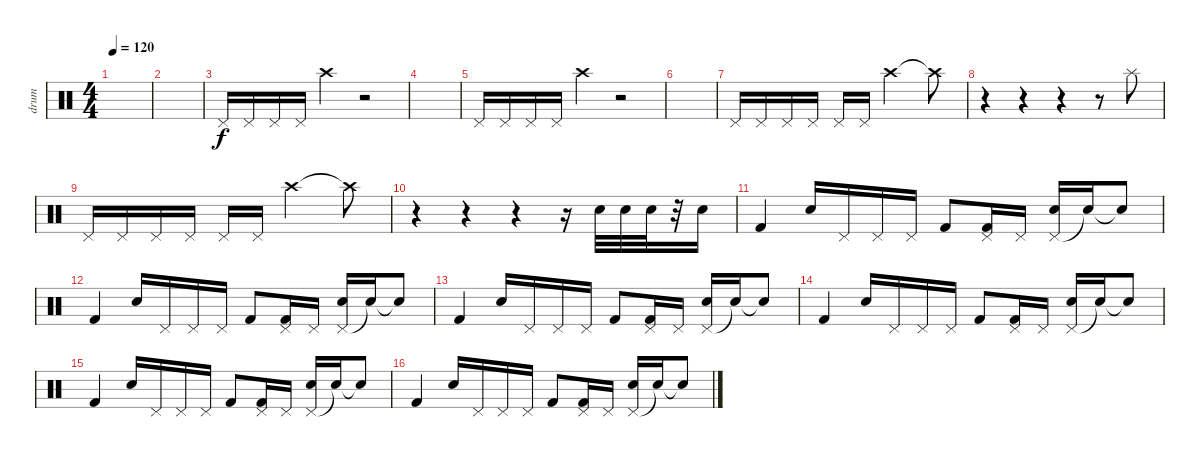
\track ("drum" "drum") {instrument percussion}
\staff {score}
\articulation defaults
\ts (4 4)
\tempo 120
\clef neutral
\ks c
|
|
"Pedal Hi-Hat (hit)".16 "Pedal Hi-Hat (hit)".16 "Pedal Hi-Hat (hit)".16 "Pedal Hi-Hat (hit)".16 "Crash high (hit)".4 r.2 |
|
"Pedal Hi-Hat (hit)".16 "Pedal Hi-Hat (hit)".16 "Pedal Hi-Hat (hit)".16 "Pedal Hi-Hat (hit)".16 "Crash high (hit)".4 r.2 |
|
"Pedal Hi-Hat (hit)".16 "Pedal Hi-Hat (hit)".16 "Pedal Hi-Hat (hit)".16 "Pedal Hi-Hat (hit)".16 "Pedal Hi-Hat (hit)".16 "Pedal Hi-Hat (hit)".16 "Crash high (hit)".2 "Crash high (hit)"{t}.8 |
r.4 r.4 r.4 r.8 "Splash (hit)".8 |
"Pedal Hi-Hat (hit)".16 "Pedal Hi-Hat (hit)".16 "Pedal Hi-Hat (hit)".16 "Pedal Hi-Hat (hit)".16 "Pedal Hi-Hat (hit)".16 "Pedal Hi-Hat (hit)".16 "Crash high (hit)".2 "Crash high (hit)"{t}.8 |
r.4 r.4 r.4 r.16 "Electric Snare (hit)".32 "Electric Snare (hit)".32 "Electric Snare (hit)".32 r.32 "Electric Snare (hit)".16 |
"Kick (hit) 2".4 "Electric Snare (hit)".16 "Pedal Hi-Hat (hit)".16 "Pedal Hi-Hat (hit)".16 "Pedal Hi-Hat (hit)".16 "Kick (hit) 2".8 ("Pedal Hi-Hat (hit)" "Kick (hit) 2").16 "Pedal Hi-Hat (hit)".16 ("Pedal Hi-Hat (hit)" "Electric Snare (hit)").16 "Snare (hit)"{t}.16 "Snare (hit)"{t}.8 |
"Kick (hit) 2".4 "Electric Snare (hit)".16 "Pedal Hi-Hat (hit)".16 "Pedal Hi-Hat (hit)".16 "Pedal Hi-Hat (hit)".16 "Kick (hit) 2".8 ("Pedal Hi-Hat (hit)" "Kick (hit) 2").16 "Pedal Hi-Hat (hit)".16 ("Pedal Hi-Hat (hit)" "Electric Snare (hit)").16 "Snare (hit)"{t}.16 "Snare (hit)"{t}.8 |
"Kick (hit) 2".4 "Electric Snare (hit)".16 "Pedal Hi-Hat (hit)".16 "Pedal Hi-Hat (hit)".16 "Pedal Hi-Hat (hit)".16 "Kick (hit) 2".8 ("Pedal Hi-Hat (hit)" "Kick (hit) 2").16 "Pedal Hi-Hat (hit)".16 ("Pedal Hi-Hat (hit)" "Electric Snare (hit)").16 "Snare (hit)"{t}.16 "Snare (hit)"{t}.8 |
"Kick (hit) 2".4 "Electric Snare (hit)".16 "Pedal Hi-Hat (hit)".16 "Pedal Hi-Hat (hit)".16 "Pedal Hi-Hat (hit)".16 "Kick (hit) 2".8 ("Pedal Hi-Hat (hit)" "Kick (hit) 2").16 "Pedal Hi-Hat (hit)".16 ("Pedal Hi-Hat (hit)" "Electric Snare (hit)").16 "Snare (hit)"{t}.16 "Snare (hit)"{t}.8 |
"Kick (hit) 2".4 "Electric Snare (hit)".16 "Pedal Hi-Hat (hit)".16 "Pedal Hi-Hat (hit)".16 "Pedal Hi-Hat (hit)".16 "Kick (hit) 2".8 ("Pedal Hi-Hat (hit)" "Kick (hit) 2").16 "Pedal Hi-Hat (hit)".16 ("Pedal Hi-Hat (hit)" "Electric Snare (hit)").16 "Snare (hit)"{t}.16 "Snare (hit)"{t}.8 |
"Kick (hit) 2".4 "Electric Snare (hit)".16 "Pedal Hi-Hat (hit)".16 "Pedal Hi-Hat (hit)".16 "Pedal Hi-Hat (hit)".16 "Kick (hit) 2".8 ("Pedal Hi-Hat (hit)" "Kick (hit) 2").16 "Pedal Hi-Hat (hit)".16 ("Pedal Hi-Hat (hit)" "Electric Snare (hit)").16 "Snare (hit)"{t}.16 "Snare (hit)"{t}.8
